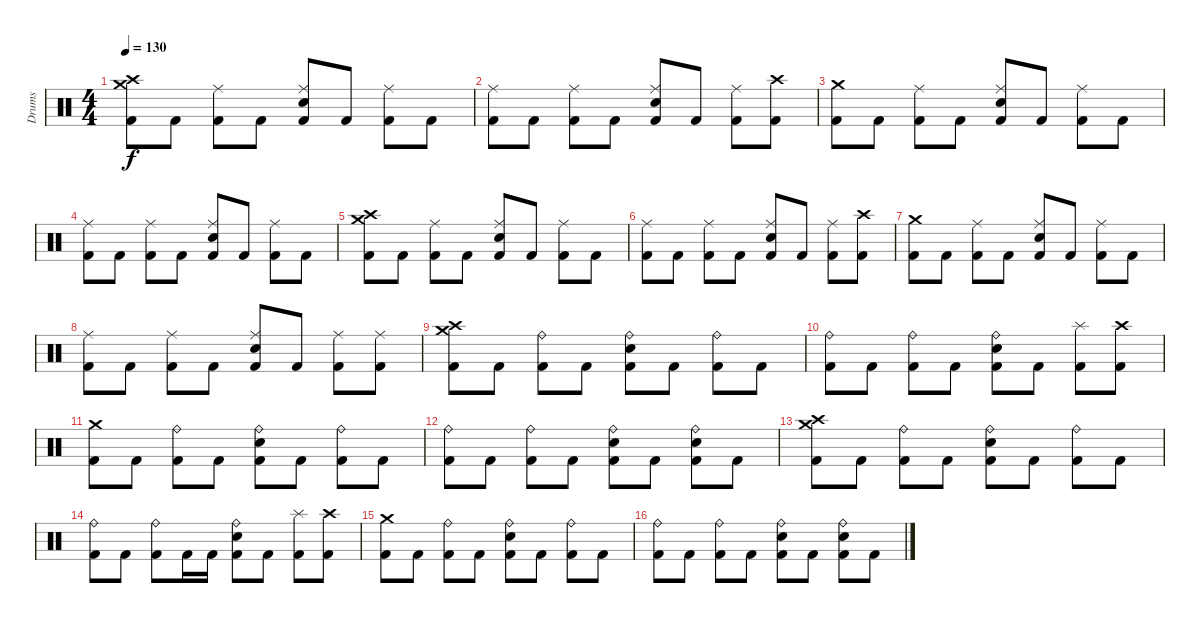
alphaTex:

\track ("Drums" "Drums") {instrument percussion}
\staff {score}
\articulation defaults
\ts (4 4)
\tempo 130
\clef neutral
\ks c
("Crash medium (hit)" "Crash high (hit)" "Kick (hit) 2").8{dy f} "Kick (hit) 2".8 ("Ride (middle)" "Kick (hit) 2").8 "Kick (hit) 2".8 ("Ride (middle)" "Electric Snare (hit)" "Kick (hit) 2").8 "Kick (hit) 2".8 ("Ride (middle)" "Kick (hit) 2").8 "Kick (hit) 2".8 |
("Ride (middle)" "Kick (hit) 2").8 "Kick (hit) 2".8 ("Ride (middle)" "Kick (hit) 2").8 "Kick (hit) 2".8 ("Ride (middle)" "Electric Snare (hit)" "Kick (hit) 2").8 "Kick (hit) 2".8 ("Ride (middle)" "Kick (hit) 2").8 ("Crash high (hit)" "Kick (hit) 2").8 |
("Crash medium (hit)" "Kick (hit) 2").8 "Kick (hit) 2".8 ("Ride (middle)" "Kick (hit) 2").8 "Kick (hit) 2".8 ("Ride (middle)" "Electric Snare (hit)" "Kick (hit) 2").8 "Kick (hit) 2".8 ("Ride (middle)" "Kick (hit) 2").8 "Kick (hit) 2".8 |
("Ride (middle)" "Kick (hit) 2").8 "Kick (hit) 2".8 ("Ride (middle)" "Kick (hit) 2").8 "Kick (hit) 2".8 ("Ride (middle)" "Electric Snare (hit)" "Kick (hit) 2").8 "Kick (hit) 2".8 ("Ride (middle)" "Kick (hit) 2").8 "Kick (hit) 2".8 |
("Crash medium (hit)" "Crash high (hit)" "Kick (hit) 2").8 "Kick (hit) 2".8 ("Ride (middle)" "Kick (hit) 2").8 "Kick (hit) 2".8 ("Ride (middle)" "Electric Snare (hit)" "Kick (hit) 2").8 "Kick (hit) 2".8 ("Ride (middle)" "Kick (hit) 2").8 "Kick (hit) 2".8 |
("Ride (middle)" "Kick (hit) 2").8 "Kick (hit) 2".8 ("Ride (middle)" "Kick (hit) 2").8 "Kick (hit) 2".8 ("Ride (middle)" "Electric Snare (hit)" "Kick (hit) 2").8 "Kick (hit) 2".8 ("Ride (middle)" "Kick (hit) 2").8 ("Crash high (hit)" "Kick (hit) 2").8 |
("Crash medium (hit)" "Kick (hit) 2").8 "Kick (hit) 2".8 ("Ride (middle)" "Kick (hit) 2").8 "Kick (hit) 2".8 ("Ride (middle)" "Electric Snare (hit)" "Kick (hit) 2").8 "Kick (hit) 2".8 ("Ride (middle)" "Kick (hit) 2").8 "Kick (hit) 2".8 |
("Ride (middle)" "Kick (hit) 2").8 "Kick (hit) 2".8 ("Ride (middle)" "Kick (hit) 2").8 "Kick (hit) 2".8 ("Ride (middle)" "Electric Snare (hit)" "Kick (hit) 2").8 "Kick (hit) 2".8 ("Ride (middle)" "Kick (hit) 2").8 ("Ride (middle)" "Kick (hit) 2").8 |
("Crash medium (hit)" "Crash high (hit)" "Kick (hit) 2").8 "Kick (hit) 2".8 ("Ride (bell)" "Kick (hit) 2").8 "Kick (hit) 2".8 ("Ride (bell)" "Electric Snare (hit)" "Kick (hit) 2").8 "Kick (hit) 2".8 ("Ride (bell)" "Kick (hit) 2").8 "Kick (hit) 2".8 |
("Ride (bell)" "Kick (hit) 2").8 "Kick (hit) 2".8 ("Ride (bell)" "Kick (hit) 2").8 "Kick (hit) 2".8 ("Ride (bell)" "Electric Snare (hit)" "Kick (hit) 2").8 "Kick (hit) 2".8 ("Splash (hit)" "Kick (hit) 2").8 ("Crash high (hit)" "Kick (hit) 2").8 |
("Crash medium (hit)" "Kick (hit) 2").8 "Kick (hit) 2".8 ("Ride (bell)" "Kick (hit) 2").8 "Kick (hit) 2".8 ("Ride (bell)" "Electric Snare (hit)" "Kick (hit) 2").8 "Kick (hit) 2".8 ("Ride (bell)" "Kick (hit) 2").8 "Kick (hit) 2".8 |
("Ride (bell)" "Kick (hit) 2").8 "Kick (hit) 2".8 ("Ride (bell)" "Kick (hit) 2").8 "Kick (hit) 2".8 ("Ride (bell)" "Electric Snare (hit)" "Kick (hit) 2").8 "Kick (hit) 2".8 ("Ride (bell)" "Electric Snare (hit)" "Kick (hit) 2").8 "Kick (hit) 2".8 |
("Crash medium (hit)" "Crash high (hit)" "Kick (hit) 2").8 "Kick (hit) 2".8 ("Ride (bell)" "Kick (hit) 2").8 "Kick (hit) 2".8 ("Ride (bell)" "Electric Snare (hit)" "Kick (hit) 2").8 "Kick (hit) 2".8 ("Ride (bell)" "Kick (hit) 2").8 "Kick (hit) 2".8 |
("Ride (bell)" "Kick (hit) 2").8 "Kick (hit) 2".8 ("Ride (bell)" "Kick (hit) 2").8 "Kick (hit) 2".16 "Kick (hit) 2".16 ("Ride (bell)" "Electric Snare (hit)" "Kick (hit) 2").8 "Kick (hit) 2".8 ("Splash (hit)" "Kick (hit) 2").8 ("Crash high (hit)" "Kick (hit) 2").8 |
("Crash medium (hit)" "Kick (hit) 2").8 "Kick (hit) 2".8 ("Ride (bell)" "Kick (hit) 2").8 "Kick (hit) 2".8 ("Ride (bell)" "Electric Snare (hit)" "Kick (hit) 2").8 "Kick (hit) 2".8 ("Ride (bell)" "Kick (hit) 2").8 "Kick (hit) 2".8 |
("Ride (bell)" "Kick (hit) 2").8 "Kick (hit) 2".8 ("Ride (bell)" "Kick (hit) 2").8 "Kick (hit) 2".8 ("Ride (bell)" "Electric Snare (hit)" "Kick (hit) 2").8 "Kick (hit) 2".8 ("Ride (bell)" "Electric Snare (hit)" "Kick (hit) 2").8 "Kick (hit) 2".8
